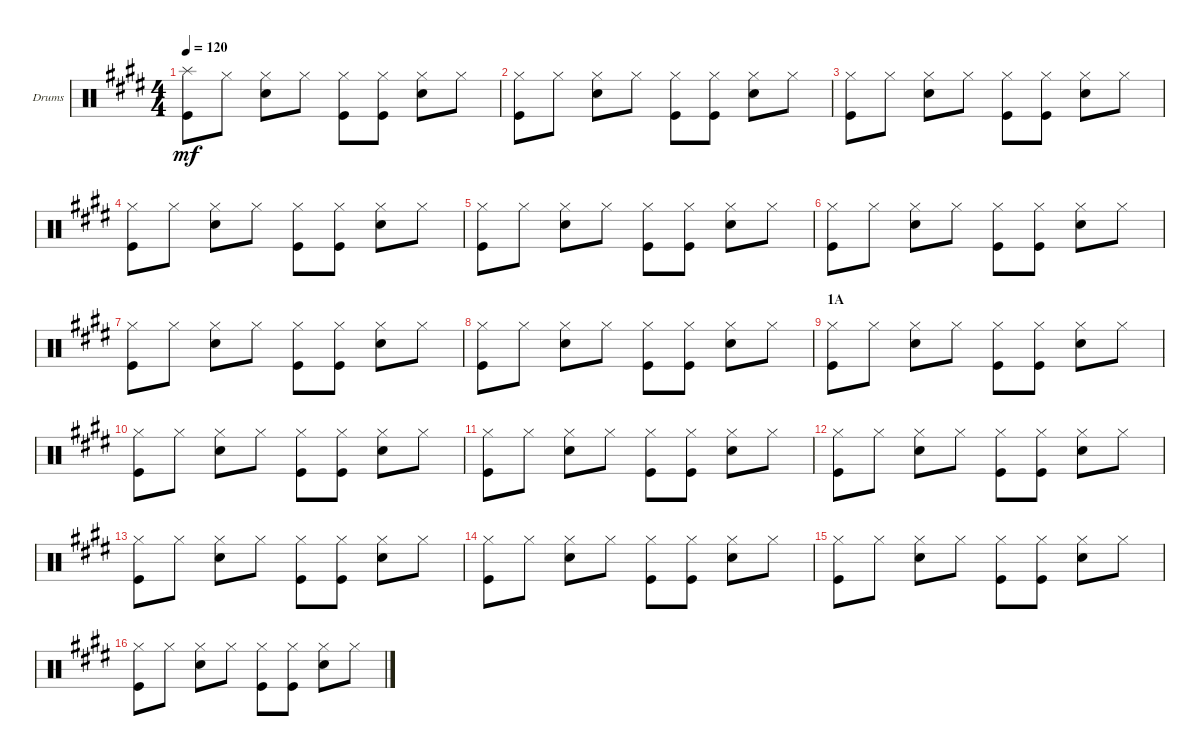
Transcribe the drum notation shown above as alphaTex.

\defaultSystemsLayout 4
\bracketExtendMode groupsimilarinstruments
\firstSystemTrackNameOrientation horizontal
\otherSystemsTrackNameOrientation horizontal
\track ("Drumkit" "Drums") {instrument percussion}
\staff {score}
\articulation defaults
\ts (4 4)
\tempo 120
\clef neutral
\ks c#minor
("Kick (hit)" "Splash (hit)").8{dy mf} "Hi-Hat (closed)".8 ("Hi-Hat (closed)" "Snare (hit) 2").8 "Hi-Hat (closed)".8 ("Kick (hit)" "Hi-Hat (closed)").8 ("Hi-Hat (closed)" "Kick (hit)").8 ("Hi-Hat (closed)" "Snare (hit) 2").8 "Hi-Hat (closed)".8 |
("Kick (hit)" "Hi-Hat (closed)").8 "Hi-Hat (closed)".8 ("Hi-Hat (closed)" "Snare (hit) 2").8 "Hi-Hat (closed)".8 ("Kick (hit)" "Hi-Hat (closed)").8 ("Hi-Hat (closed)" "Kick (hit)").8 ("Hi-Hat (closed)" "Snare (hit) 2").8 "Hi-Hat (closed)".8 |
("Kick (hit)" "Hi-Hat (closed)").8 "Hi-Hat (closed)".8 ("Hi-Hat (closed)" "Snare (hit) 2").8 "Hi-Hat (closed)".8 ("Kick (hit)" "Hi-Hat (closed)").8 ("Hi-Hat (closed)" "Kick (hit)").8 ("Hi-Hat (closed)" "Snare (hit) 2").8 "Hi-Hat (closed)".8 |
("Kick (hit)" "Hi-Hat (closed)").8 "Hi-Hat (closed)".8 ("Hi-Hat (closed)" "Snare (hit) 2").8 "Hi-Hat (closed)".8 ("Kick (hit)" "Hi-Hat (closed)").8 ("Hi-Hat (closed)" "Kick (hit)").8 ("Hi-Hat (closed)" "Snare (hit) 2").8 "Hi-Hat (closed)".8 |
("Kick (hit)" "Hi-Hat (closed)").8 "Hi-Hat (closed)".8 ("Hi-Hat (closed)" "Snare (hit) 2").8 "Hi-Hat (closed)".8 ("Kick (hit)" "Hi-Hat (closed)").8 ("Hi-Hat (closed)" "Kick (hit)").8 ("Hi-Hat (closed)" "Snare (hit) 2").8 "Hi-Hat (closed)".8 |
("Kick (hit)" "Hi-Hat (closed)").8 "Hi-Hat (closed)".8 ("Hi-Hat (closed)" "Snare (hit) 2").8 "Hi-Hat (closed)".8 ("Kick (hit)" "Hi-Hat (closed)").8 ("Hi-Hat (closed)" "Kick (hit)").8 ("Hi-Hat (closed)" "Snare (hit) 2").8 "Hi-Hat (closed)".8 |
("Kick (hit)" "Hi-Hat (closed)").8 "Hi-Hat (closed)".8 ("Hi-Hat (closed)" "Snare (hit) 2").8 "Hi-Hat (closed)".8 ("Kick (hit)" "Hi-Hat (closed)").8 ("Hi-Hat (closed)" "Kick (hit)").8 ("Hi-Hat (closed)" "Snare (hit) 2").8 "Hi-Hat (closed)".8 |
("Kick (hit)" "Hi-Hat (closed)").8 "Hi-Hat (closed)".8 ("Hi-Hat (closed)" "Snare (hit) 2").8 "Hi-Hat (closed)".8 ("Kick (hit)" "Hi-Hat (closed)").8 ("Hi-Hat (closed)" "Kick (hit)").8 ("Hi-Hat (closed)" "Snare (hit) 2").8 "Hi-Hat (closed)".8 |
\section ("" "1A")
("Kick (hit)" "Hi-Hat (closed)").8 "Hi-Hat (closed)".8 ("Hi-Hat (closed)" "Snare (hit) 2").8 "Hi-Hat (closed)".8 ("Kick (hit)" "Hi-Hat (closed)").8 ("Hi-Hat (closed)" "Kick (hit)").8 ("Hi-Hat (closed)" "Snare (hit) 2").8 "Hi-Hat (closed)".8 |
("Kick (hit)" "Hi-Hat (closed)").8 "Hi-Hat (closed)".8 ("Hi-Hat (closed)" "Snare (hit) 2").8 "Hi-Hat (closed)".8 ("Kick (hit)" "Hi-Hat (closed)").8 ("Hi-Hat (closed)" "Kick (hit)").8 ("Hi-Hat (closed)" "Snare (hit) 2").8 "Hi-Hat (closed)".8 |
("Kick (hit)" "Hi-Hat (closed)").8 "Hi-Hat (closed)".8 ("Hi-Hat (closed)" "Snare (hit) 2").8 "Hi-Hat (closed)".8 ("Kick (hit)" "Hi-Hat (closed)").8 ("Hi-Hat (closed)" "Kick (hit)").8 ("Hi-Hat (closed)" "Snare (hit) 2").8 "Hi-Hat (closed)".8 |
("Kick (hit)" "Hi-Hat (closed)").8 "Hi-Hat (closed)".8 ("Hi-Hat (closed)" "Snare (hit) 2").8 "Hi-Hat (closed)".8 ("Kick (hit)" "Hi-Hat (closed)").8 ("Hi-Hat (closed)" "Kick (hit)").8 ("Hi-Hat (closed)" "Snare (hit) 2").8 "Hi-Hat (closed)".8 |
("Kick (hit)" "Hi-Hat (closed)").8 "Hi-Hat (closed)".8 ("Hi-Hat (closed)" "Snare (hit) 2").8 "Hi-Hat (closed)".8 ("Kick (hit)" "Hi-Hat (closed)").8 ("Hi-Hat (closed)" "Kick (hit)").8 ("Hi-Hat (closed)" "Snare (hit) 2").8 "Hi-Hat (closed)".8 |
("Kick (hit)" "Hi-Hat (closed)").8 "Hi-Hat (closed)".8 ("Hi-Hat (closed)" "Snare (hit) 2").8 "Hi-Hat (closed)".8 ("Kick (hit)" "Hi-Hat (closed)").8 ("Hi-Hat (closed)" "Kick (hit)").8 ("Hi-Hat (closed)" "Snare (hit) 2").8 "Hi-Hat (closed)".8 |
("Kick (hit)" "Hi-Hat (closed)").8 "Hi-Hat (closed)".8 ("Hi-Hat (closed)" "Snare (hit) 2").8 "Hi-Hat (closed)".8 ("Kick (hit)" "Hi-Hat (closed)").8 ("Hi-Hat (closed)" "Kick (hit)").8 ("Hi-Hat (closed)" "Snare (hit) 2").8 "Hi-Hat (closed)".8 |
("Kick (hit)" "Hi-Hat (closed)").8 "Hi-Hat (closed)".8 ("Hi-Hat (closed)" "Snare (hit) 2").8 "Hi-Hat (closed)".8 ("Kick (hit)" "Hi-Hat (closed)").8 ("Hi-Hat (closed)" "Kick (hit)").8 ("Hi-Hat (closed)" "Snare (hit) 2").8 "Hi-Hat (closed)".8
